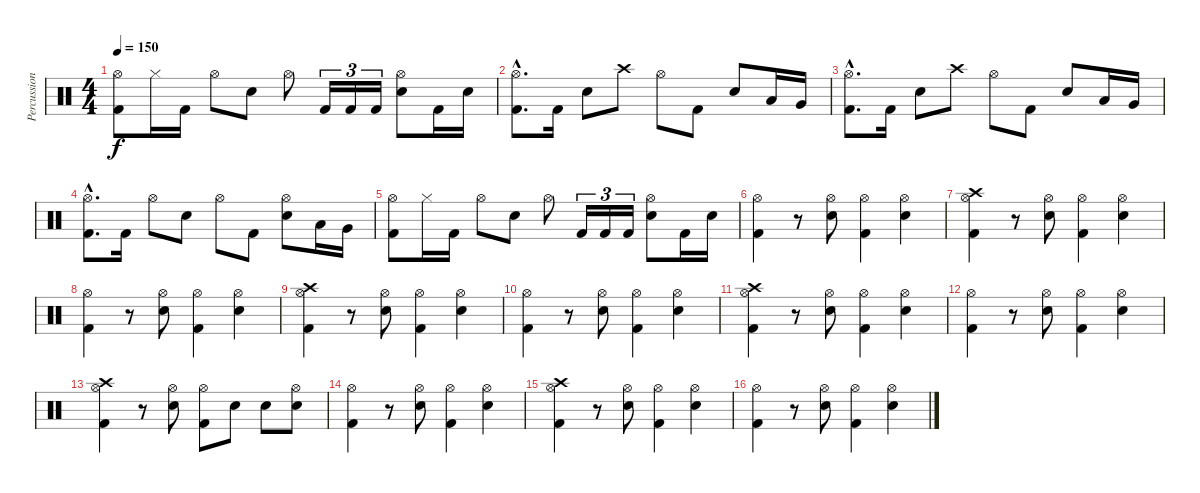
\track ("Percussion" "Percussion") {instrument percussion}
\staff {score}
\articulation defaults
\ts (4 4)
\tempo 150
\clef neutral
\ks c
("Hi-Hat (open)" "Kick (hit) 2").8{dy f} "Hi-Hat (closed)".16 "Kick (hit) 2".16 "Hi-Hat (open)".8 "Electric Snare (hit)".8 "Hi-Hat (open)".8 "Kick (hit) 2".16{tu (3 2)} "Kick (hit) 2".16{tu (3 2)} "Kick (hit) 2".16{tu (3 2)} ("Hi-Hat (open)" "Electric Snare (hit)").8 "Kick (hit) 2".16 "Electric Snare (hit)".16 |
("Hi-Hat (open)"{hac} "Kick (hit) 2"{hac}).8{d} "Kick (hit) 2".16 "Electric Snare (hit)".8 "Crash high (hit)".8 "Hi-Hat (open)".8 "Kick (hit) 2".8 "Electric Snare (hit)".8 "Low Tom (hit)".16 "Very Low Tom (hit)".16 |
("Hi-Hat (open)"{hac} "Kick (hit) 2"{hac}).8{d} "Kick (hit) 2".16 "Electric Snare (hit)".8 "Crash high (hit)".8 "Hi-Hat (open)".8 "Kick (hit) 2".8 "Electric Snare (hit)".8 "Low Tom (hit)".16 "Very Low Tom (hit)".16 |
("Hi-Hat (open)"{hac} "Kick (hit) 2"{hac}).8{d} "Kick (hit) 2".16 "Hi-Hat (open)".8 "Electric Snare (hit)".8 "Hi-Hat (open)".8 "Kick (hit) 2".8 ("Hi-Hat (open)" "Electric Snare (hit)").8 "Low Tom (hit)".16 "Very Low Tom (hit)".16 |
("Hi-Hat (open)" "Kick (hit) 2").8 "Hi-Hat (closed)".16 "Kick (hit) 2".16 "Hi-Hat (open)".8 "Electric Snare (hit)".8 "Hi-Hat (open)".8 "Kick (hit) 2".16{tu (3 2)} "Kick (hit) 2".16{tu (3 2)} "Kick (hit) 2".16{tu (3 2)} ("Hi-Hat (open)" "Electric Snare (hit)").8 "Kick (hit) 2".16 "Electric Snare (hit)".16 |
("Hi-Hat (open)" "Kick (hit) 2").4 r.8 ("Hi-Hat (open)" "Electric Snare (hit)").8 ("Hi-Hat (open)" "Kick (hit) 2").4 ("Hi-Hat (open)" "Electric Snare (hit)").4 |
("Crash high (hit)" "Hi-Hat (open)" "Kick (hit) 2").4 r.8 ("Hi-Hat (open)" "Electric Snare (hit)").8 ("Hi-Hat (open)" "Kick (hit) 2").4 ("Hi-Hat (open)" "Electric Snare (hit)").4 |
("Hi-Hat (open)" "Kick (hit) 2").4 r.8 ("Hi-Hat (open)" "Electric Snare (hit)").8 ("Hi-Hat (open)" "Kick (hit) 2").4 ("Hi-Hat (open)" "Electric Snare (hit)").4 |
("Crash high (hit)" "Hi-Hat (open)" "Kick (hit) 2").4 r.8 ("Hi-Hat (open)" "Electric Snare (hit)").8 ("Hi-Hat (open)" "Kick (hit) 2").4 ("Hi-Hat (open)" "Electric Snare (hit)").4 |
("Hi-Hat (open)" "Kick (hit) 2").4 r.8 ("Hi-Hat (open)" "Electric Snare (hit)").8 ("Hi-Hat (open)" "Kick (hit) 2").4 ("Hi-Hat (open)" "Electric Snare (hit)").4 |
("Crash high (hit)" "Hi-Hat (open)" "Kick (hit) 2").4 r.8 ("Hi-Hat (open)" "Electric Snare (hit)").8 ("Hi-Hat (open)" "Kick (hit) 2").4 ("Hi-Hat (open)" "Electric Snare (hit)").4 |
("Hi-Hat (open)" "Kick (hit) 2").4 r.8 ("Hi-Hat (open)" "Electric Snare (hit)").8 ("Hi-Hat (open)" "Kick (hit) 2").4 ("Hi-Hat (open)" "Electric Snare (hit)").4 |
("Crash high (hit)" "Hi-Hat (open)" "Kick (hit) 2").4 r.8 ("Hi-Hat (open)" "Electric Snare (hit)").8 ("Hi-Hat (open)" "Kick (hit) 2").8 "Electric Snare (hit)".8 "Electric Snare (hit)".8 ("Hi-Hat (open)" "Electric Snare (hit)").8 |
("Hi-Hat (open)" "Kick (hit) 2").4 r.8 ("Hi-Hat (open)" "Electric Snare (hit)").8 ("Hi-Hat (open)" "Kick (hit) 2").4 ("Hi-Hat (open)" "Electric Snare (hit)").4 |
("Crash high (hit)" "Hi-Hat (open)" "Kick (hit) 2").4 r.8 ("Hi-Hat (open)" "Electric Snare (hit)").8 ("Hi-Hat (open)" "Kick (hit) 2").4 ("Hi-Hat (open)" "Electric Snare (hit)").4 |
("Hi-Hat (open)" "Kick (hit) 2").4 r.8 ("Hi-Hat (open)" "Electric Snare (hit)").8 ("Hi-Hat (open)" "Kick (hit) 2").4 ("Hi-Hat (open)" "Electric Snare (hit)").4
